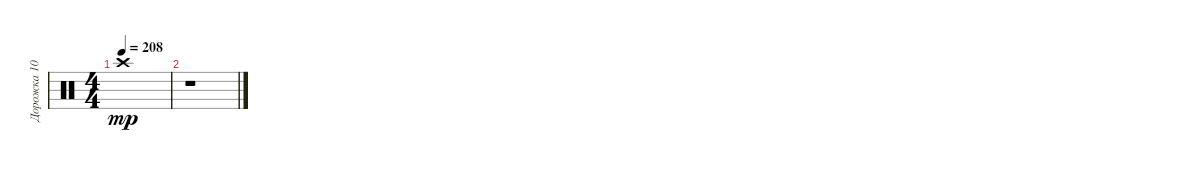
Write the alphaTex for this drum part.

\track ("Дорожка 10" "Дорожка 10") {instrument percussion}
\staff {score}
\articulation defaults
\ts (4 4)
\tempo 208
\clef neutral
\ks c "Crash high (hit)".1{dy mp}
|
r.1
